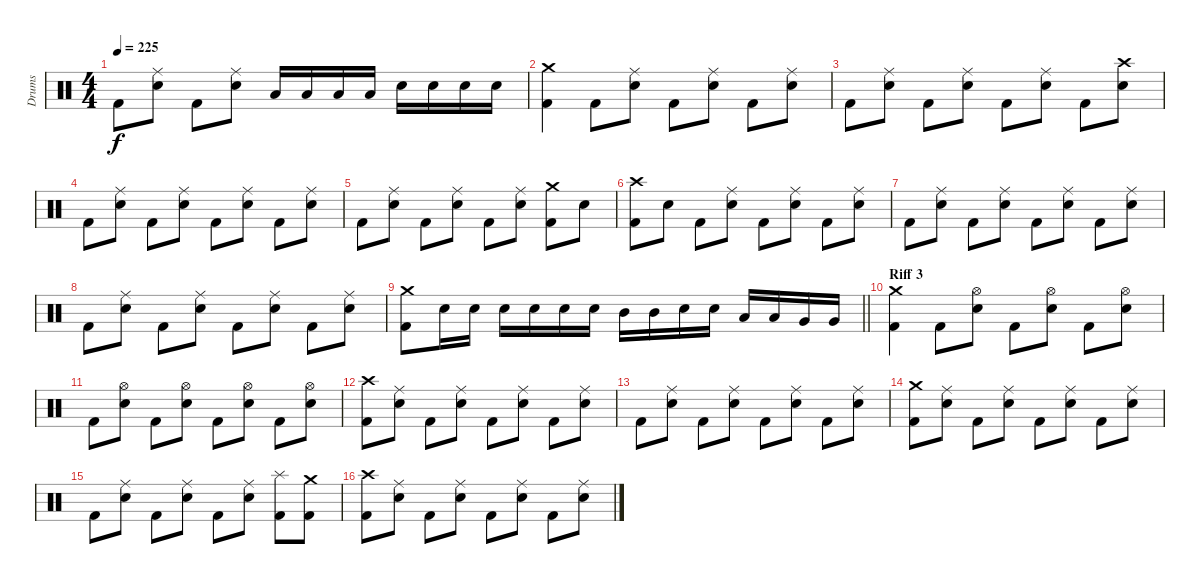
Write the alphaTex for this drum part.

\track ("Drums" "Drums") {instrument percussion}
\staff {score}
\articulation defaults
\ts (4 4)
\tempo 225
\clef neutral
\ks c "Kick (hit) 2".8{dy f}
("Ride (middle)" "Electric Snare (hit)").8 "Kick (hit) 2".8 ("Ride (middle)" "Electric Snare (hit)").8 "Low Tom (hit)".16 "Low Tom (hit)".16 "Low Tom (hit)".16 "Low Tom (hit)".16 "Electric Snare (hit)".16 "Electric Snare (hit)".16 "Electric Snare (hit)".16 "Electric Snare (hit)".16 |
("Crash medium (hit)" "Kick (hit) 2").4 "Kick (hit) 2".8 ("Ride (middle)" "Electric Snare (hit)").8 "Kick (hit) 2".8 ("Ride (middle)" "Electric Snare (hit)").8 "Kick (hit) 2".8 ("Ride (middle)" "Electric Snare (hit)").8 |
"Kick (hit) 2".8 ("Ride (middle)" "Electric Snare (hit)").8 "Kick (hit) 2".8 ("Ride (middle)" "Electric Snare (hit)").8 "Kick (hit) 2".8 ("Ride (middle)" "Electric Snare (hit)").8 "Kick (hit) 2".8 ("Crash high (hit)" "Electric Snare (hit)").8 |
"Kick (hit) 2".8 ("Ride (middle)" "Electric Snare (hit)").8 "Kick (hit) 2".8 ("Ride (middle)" "Electric Snare (hit)").8 "Kick (hit) 2".8 ("Ride (middle)" "Electric Snare (hit)").8 "Kick (hit) 2".8 ("Ride (middle)" "Electric Snare (hit)").8 |
"Kick (hit) 2".8 ("Ride (middle)" "Electric Snare (hit)").8 "Kick (hit) 2".8 ("Ride (middle)" "Electric Snare (hit)").8 "Kick (hit) 2".8 ("Ride (middle)" "Electric Snare (hit)").8 ("Crash medium (hit)" "Kick (hit) 2").8 "Electric Snare (hit)".8 |
("Crash high (hit)" "Kick (hit) 2").8 "Electric Snare (hit)".8 "Kick (hit) 2".8 ("Ride (middle)" "Electric Snare (hit)").8 "Kick (hit) 2".8 ("Ride (middle)" "Electric Snare (hit)").8 "Kick (hit) 2".8 ("Ride (middle)" "Electric Snare (hit)").8 |
"Kick (hit) 2".8 ("Ride (middle)" "Electric Snare (hit)").8 "Kick (hit) 2".8 ("Ride (middle)" "Electric Snare (hit)").8 "Kick (hit) 2".8 ("Ride (middle)" "Electric Snare (hit)").8 "Kick (hit) 2".8 ("Ride (middle)" "Electric Snare (hit)").8 |
"Kick (hit) 2".8 ("Ride (middle)" "Electric Snare (hit)").8 "Kick (hit) 2".8 ("Ride (middle)" "Electric Snare (hit)").8 "Kick (hit) 2".8 ("Ride (middle)" "Electric Snare (hit)").8 "Kick (hit) 2".8 ("Ride (middle)" "Electric Snare (hit)").8 |
\barLineRight lightlight
("Kick (hit) 2" "Crash medium (hit)").8 "Electric Snare (hit)".16 "Electric Snare (hit)".16 "Electric Snare (hit)".16 "Electric Snare (hit)".16 "Electric Snare (hit)".16 "Electric Snare (hit)".16 "Mid Tom (hit)".16 "Mid Tom (hit)".16 "Electric Snare (hit)".16 "Electric Snare (hit)".16 "Low Tom (hit)".16 "Low Tom (hit)".16 "Very Low Tom (hit)".16 "Very Low Tom (hit)".16 |
\section ("" "Riff 3")
("Kick (hit) 2" "Crash medium (hit)").4 "Kick (hit) 2".8 ("Electric Snare (hit)" "Hi-Hat (open)").8 "Kick (hit) 2".8 ("Electric Snare (hit)" "Hi-Hat (open)").8 "Kick (hit) 2".8 ("Electric Snare (hit)" "Hi-Hat (open)").8 |
"Kick (hit) 2".8 ("Electric Snare (hit)" "Hi-Hat (open)").8 "Kick (hit) 2".8 ("Electric Snare (hit)" "Hi-Hat (open)").8 "Kick (hit) 2".8 ("Electric Snare (hit)" "Hi-Hat (open)").8 "Kick (hit) 2".8 ("Electric Snare (hit)" "Hi-Hat (open)").8 |
("Kick (hit) 2" "Crash high (hit)").8 ("Electric Snare (hit)" "Ride (middle)").8 "Kick (hit) 2".8 ("Electric Snare (hit)" "Ride (middle)").8 "Kick (hit) 2".8 ("Electric Snare (hit)" "Ride (middle)").8 "Kick (hit) 2".8 ("Electric Snare (hit)" "Ride (middle)").8 |
"Kick (hit) 2".8 ("Electric Snare (hit)" "Ride (middle)").8 "Kick (hit) 2".8 ("Electric Snare (hit)" "Ride (middle)").8 "Kick (hit) 2".8 ("Electric Snare (hit)" "Ride (middle)").8 "Kick (hit) 2".8 ("Electric Snare (hit)" "Ride (middle)").8 |
("Kick (hit) 2" "Crash medium (hit)").8 ("Electric Snare (hit)" "Ride (middle)").8 "Kick (hit) 2".8 ("Electric Snare (hit)" "Ride (middle)").8 "Kick (hit) 2".8 ("Electric Snare (hit)" "Ride (middle)").8 "Kick (hit) 2".8 ("Electric Snare (hit)" "Ride (middle)").8 |
"Kick (hit) 2".8 ("Electric Snare (hit)" "Ride (middle)").8 "Kick (hit) 2".8 ("Electric Snare (hit)" "Ride (middle)").8 "Kick (hit) 2".8 ("Electric Snare (hit)" "Ride (middle)").8 ("Kick (hit) 2" "Splash (hit)").8 ("Kick (hit) 2" "Crash medium (hit)").8 |
("Kick (hit) 2" "Crash high (hit)").8 ("Electric Snare (hit)" "Ride (middle)").8 "Kick (hit) 2".8 ("Electric Snare (hit)" "Ride (middle)").8 "Kick (hit) 2".8 ("Electric Snare (hit)" "Ride (middle)").8 "Kick (hit) 2".8 ("Electric Snare (hit)" "Ride (middle)").8
